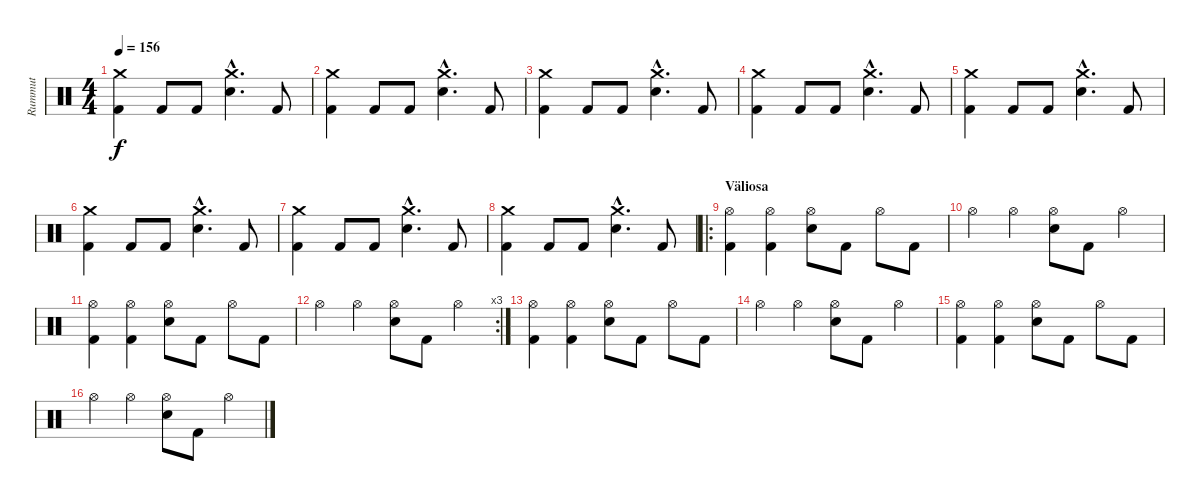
\track ("Rummut" "Rummut") {instrument percussion}
\staff {score}
\articulation defaults
\ts (4 4)
\tempo 156
\clef neutral
\ks c
("Kick (hit) 2" "Crash medium (hit)").4{dy f} "Kick (hit) 2".8 "Kick (hit) 2".8 ("Crash medium (hit)"{hac} "Snare (hit) 2"{hac}).4{d} "Kick (hit) 2".8 |
("Kick (hit) 2" "Crash medium (hit)").4 "Kick (hit) 2".8 "Kick (hit) 2".8 ("Crash medium (hit)"{hac} "Snare (hit) 2"{hac}).4{d} "Kick (hit) 2".8 |
("Kick (hit) 2" "Crash medium (hit)").4 "Kick (hit) 2".8 "Kick (hit) 2".8 ("Crash medium (hit)"{hac} "Snare (hit) 2"{hac}).4{d} "Kick (hit) 2".8 |
("Kick (hit) 2" "Crash medium (hit)").4 "Kick (hit) 2".8 "Kick (hit) 2".8 ("Crash medium (hit)"{hac} "Snare (hit) 2"{hac}).4{d} "Kick (hit) 2".8 |
("Kick (hit) 2" "Crash medium (hit)").4 "Kick (hit) 2".8 "Kick (hit) 2".8 ("Crash medium (hit)"{hac} "Snare (hit) 2"{hac}).4{d} "Kick (hit) 2".8 |
("Kick (hit) 2" "Crash medium (hit)").4 "Kick (hit) 2".8 "Kick (hit) 2".8 ("Crash medium (hit)"{hac} "Snare (hit) 2"{hac}).4{d} "Kick (hit) 2".8 |
("Kick (hit) 2" "Crash medium (hit)").4 "Kick (hit) 2".8 "Kick (hit) 2".8 ("Crash medium (hit)"{hac} "Snare (hit) 2"{hac}).4{d} "Kick (hit) 2".8 |
("Kick (hit) 2" "Crash medium (hit)").4 "Kick (hit) 2".8 "Kick (hit) 2".8 ("Crash medium (hit)"{hac} "Snare (hit) 2"{hac}).4{d} "Kick (hit) 2".8 |
\ro
\section ("" "Väliosa")
("Kick (hit) 2" "Hi-Hat (open)").4 ("Kick (hit) 2" "Hi-Hat (open)").4 ("Hi-Hat (open)" "Snare (hit) 2").8 "Kick (hit) 2".8 "Hi-Hat (open)".8 "Kick (hit) 2".8 |
"Hi-Hat (open)".4 "Hi-Hat (open)".4 ("Hi-Hat (open)" "Snare (hit) 2").8 "Kick (hit) 2".8 "Hi-Hat (open)".4 |
("Kick (hit) 2" "Hi-Hat (open)").4 ("Kick (hit) 2" "Hi-Hat (open)").4 ("Hi-Hat (open)" "Snare (hit) 2").8 "Kick (hit) 2".8 "Hi-Hat (open)".8 "Kick (hit) 2".8 |
\rc 3 "Hi-Hat (open)".4 "Hi-Hat (open)".4
("Hi-Hat (open)" "Snare (hit) 2").8 "Kick (hit) 2".8 "Hi-Hat (open)".4 |
("Kick (hit) 2" "Hi-Hat (open)").4 ("Kick (hit) 2" "Hi-Hat (open)").4 ("Hi-Hat (open)" "Snare (hit) 2").8 "Kick (hit) 2".8 "Hi-Hat (open)".8 "Kick (hit) 2".8 |
"Hi-Hat (open)".4 "Hi-Hat (open)".4 ("Hi-Hat (open)" "Snare (hit) 2").8 "Kick (hit) 2".8 "Hi-Hat (open)".4 |
("Kick (hit) 2" "Hi-Hat (open)").4 ("Kick (hit) 2" "Hi-Hat (open)").4 ("Hi-Hat (open)" "Snare (hit) 2").8 "Kick (hit) 2".8 "Hi-Hat (open)".8 "Kick (hit) 2".8 |
"Hi-Hat (open)".4 "Hi-Hat (open)".4 ("Hi-Hat (open)" "Snare (hit) 2").8 "Kick (hit) 2".8 "Hi-Hat (open)".4
